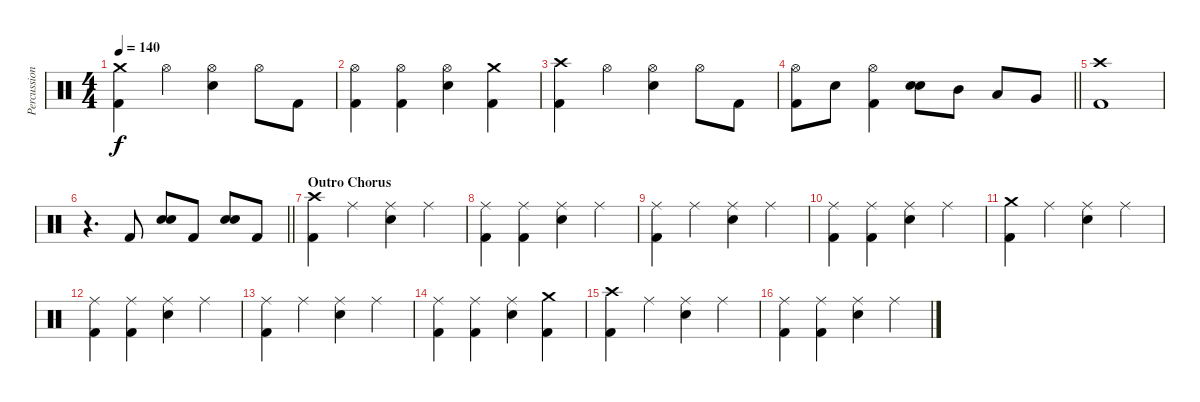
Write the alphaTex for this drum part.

\track ("Percussion" "Percussion") {instrument percussion}
\staff {score}
\articulation defaults
\ts (4 4)
\tempo 140
\clef neutral
\ks c
("Kick (hit) 2" "Crash medium (hit)").4{dy f} "Hi-Hat (open)".4 ("Snare (hit) 2" "Hi-Hat (open)").4 "Hi-Hat (open)".8 "Kick (hit) 2".8 |
("Kick (hit) 2" "Hi-Hat (open)").4 ("Kick (hit) 2" "Hi-Hat (open)").4 ("Snare (hit) 2" "Hi-Hat (open)").4 ("Kick (hit) 2" "Crash medium (hit)").4 |
("Kick (hit) 2" "Crash high (hit)").4 "Hi-Hat (open)".4 ("Snare (hit) 2" "Hi-Hat (open)").4 "Hi-Hat (open)".8 "Kick (hit) 2".8 |
\barLineRight lightlight
("Kick (hit) 2" "Hi-Hat (open)").8 "Snare (hit) 2".8 ("Kick (hit) 2" "Hi-Hat (open)").4 ("Snare (hit) 2" "Snare (hit) 2").8 "Mid Tom (hit)".8 "Low Tom (hit)".8 "Very Low Tom (hit)".8 |
("Kick (hit) 2" "Crash high (hit)").1 |
\barLineRight lightlight
r.4{d} "Kick (hit) 2".8 ("Snare (hit) 2" "Snare (hit) 2").8 "Kick (hit) 2".8 ("Snare (hit) 2" "Snare (hit) 2").8 "Kick (hit) 2".8 |
\section ("" "Outro Chorus")
("Kick (hit) 2" "Crash high (hit)").4 "Ride (middle)".4 ("Snare (hit) 2" "Ride (middle)").4 "Ride (middle)".4 |
("Kick (hit) 2" "Ride (middle)").4 ("Kick (hit) 2" "Ride (middle)").4 ("Snare (hit) 2" "Ride (middle)").4 "Ride (middle)".4 |
("Kick (hit) 2" "Ride (middle)").4 "Ride (middle)".4 ("Snare (hit) 2" "Ride (middle)").4 "Ride (middle)".4 |
("Kick (hit) 2" "Ride (middle)").4 ("Kick (hit) 2" "Ride (middle)").4 ("Snare (hit) 2" "Ride (middle)").4 "Ride (middle)".4 |
("Kick (hit) 2" "Crash medium (hit)").4 "Ride (middle)".4 ("Snare (hit) 2" "Ride (middle)").4 "Ride (middle)".4 |
("Kick (hit) 2" "Ride (middle)").4 ("Kick (hit) 2" "Ride (middle)").4 ("Snare (hit) 2" "Ride (middle)").4 "Ride (middle)".4 |
("Kick (hit) 2" "Ride (middle)").4 "Ride (middle)".4 ("Snare (hit) 2" "Ride (middle)").4 "Ride (middle)".4 |
("Kick (hit) 2" "Ride (middle)").4 ("Kick (hit) 2" "Ride (middle)").4 ("Snare (hit) 2" "Ride (middle)").4 ("Kick (hit) 2" "Crash medium (hit)").4 |
("Kick (hit) 2" "Crash high (hit)").4 "Ride (middle)".4 ("Snare (hit) 2" "Ride (middle)").4 "Ride (middle)".4 |
("Kick (hit) 2" "Ride (middle)").4 ("Kick (hit) 2" "Ride (middle)").4 ("Snare (hit) 2" "Ride (middle)").4 "Ride (middle)".4
